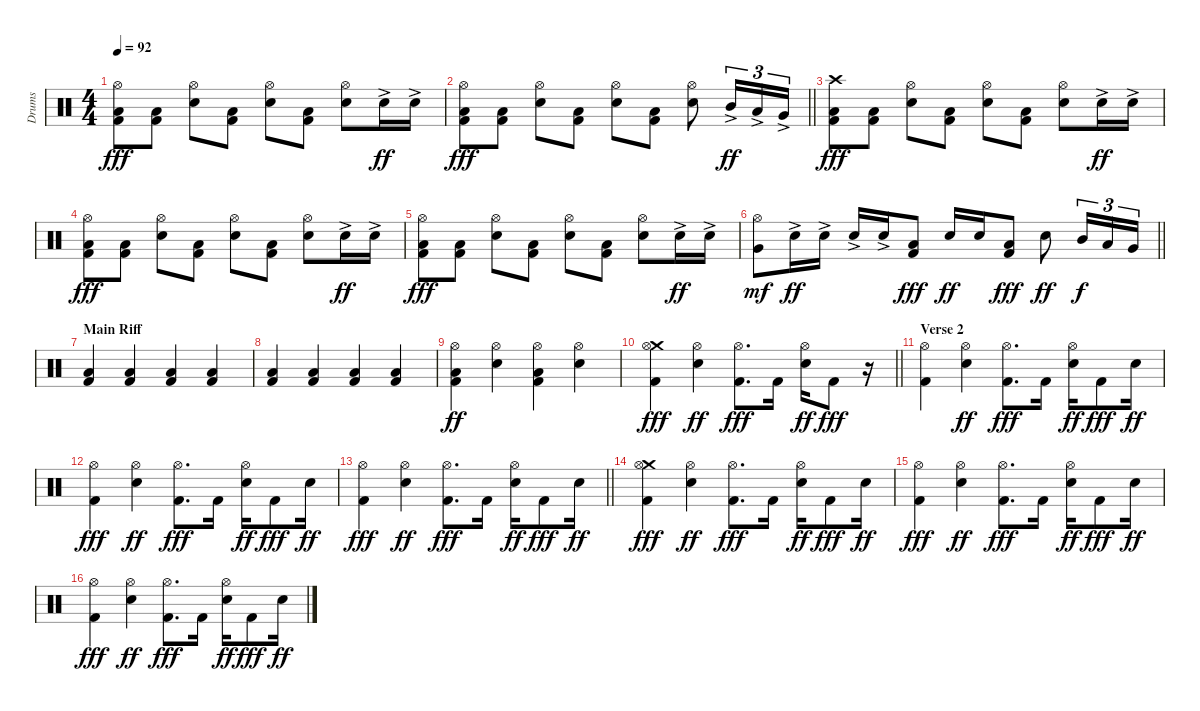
\track ("Drums" "Drums") {instrument percussion}
\staff {score}
\articulation defaults
\ts (4 4)
\tempo 92
\clef neutral
\ks c
("Hi-Hat (open)" "Low Floor Tom (hit)" "Kick (hit) 2").8{dy fff} ("Low Floor Tom (hit)" "Kick (hit) 2").8 ("Hi-Hat (open)" "Electric Snare (hit)").8 ("Low Floor Tom (hit)" "Kick (hit) 2").8 ("Hi-Hat (open)" "Electric Snare (hit)").8 ("Low Floor Tom (hit)" "Kick (hit) 2").8 ("Hi-Hat (open)" "Electric Snare (hit)").8 "Electric Snare (hit)"{ac}.16{dy ff} "Electric Snare (hit)"{ac}.16 |
\barLineRight lightlight
("Hi-Hat (open)" "Low Floor Tom (hit)" "Kick (hit) 2").8{dy fff} ("Low Floor Tom (hit)" "Kick (hit) 2").8 ("Hi-Hat (open)" "Electric Snare (hit)").8 ("Low Floor Tom (hit)" "Kick (hit) 2").8 ("Hi-Hat (open)" "Electric Snare (hit)").8 ("Low Floor Tom (hit)" "Kick (hit) 2").8 ("Hi-Hat (open)" "Electric Snare (hit)").8 "Mid Tom (hit)"{ac}.16{tu (3 2) dy ff} "Low Tom (hit)"{ac}.16{tu (3 2)} "Very Low Tom (hit)"{ac}.16{tu (3 2)} |
\section ("" "")
("Crash high (hit)" "Low Floor Tom (hit)" "Kick (hit) 2").8{dy fff} ("Low Floor Tom (hit)" "Kick (hit) 2").8 ("Hi-Hat (open)" "Electric Snare (hit)").8 ("Low Floor Tom (hit)" "Kick (hit) 2").8 ("Hi-Hat (open)" "Electric Snare (hit)").8 ("Low Floor Tom (hit)" "Kick (hit) 2").8 ("Hi-Hat (open)" "Electric Snare (hit)").8 "Electric Snare (hit)"{ac}.16{dy ff} "Electric Snare (hit)"{ac}.16 |
("Hi-Hat (open)" "Low Floor Tom (hit)" "Kick (hit) 2").8{dy fff} ("Low Floor Tom (hit)" "Kick (hit) 2").8 ("Hi-Hat (open)" "Electric Snare (hit)").8 ("Low Floor Tom (hit)" "Kick (hit) 2").8 ("Hi-Hat (open)" "Electric Snare (hit)").8 ("Low Floor Tom (hit)" "Kick (hit) 2").8 ("Hi-Hat (open)" "Electric Snare (hit)").8 "Electric Snare (hit)"{ac}.16{dy ff} "Electric Snare (hit)"{ac}.16 |
("Hi-Hat (open)" "Low Floor Tom (hit)" "Kick (hit) 2").8{dy fff} ("Low Floor Tom (hit)" "Kick (hit) 2").8 ("Hi-Hat (open)" "Electric Snare (hit)").8 ("Low Floor Tom (hit)" "Kick (hit) 2").8 ("Hi-Hat (open)" "Electric Snare (hit)").8 ("Low Floor Tom (hit)" "Kick (hit) 2").8 ("Hi-Hat (open)" "Electric Snare (hit)").8 "Electric Snare (hit)"{ac}.16{dy ff} "Electric Snare (hit)"{ac}.16 |
\barLineRight lightlight
("Hi-Hat (open)" "Very Low Tom (hit)").8{dy mf} "Electric Snare (hit)"{ac}.16{dy ff} "Electric Snare (hit)"{ac}.16 "Electric Snare (hit)"{ac}.16 "Electric Snare (hit)"{ac}.16 ("Low Floor Tom (hit)" "Kick (hit) 2").8{dy fff} "Electric Snare (hit)".16{dy ff} "Electric Snare (hit)".16 ("Low Floor Tom (hit)" "Kick (hit) 2").8{dy fff} "Electric Snare (hit)".8{dy ff} "Mid Tom (hit)".16{tu (3 2) dy f} "Low Tom (hit)".16{tu (3 2)} "Very Low Tom (hit)".16{tu (3 2)} |
\section ("" "Main Riff")
("Low Floor Tom (hit)" "Kick (hit) 2").4 ("Low Floor Tom (hit)" "Kick (hit) 2").4 ("Low Floor Tom (hit)" "Kick (hit) 2").4 ("Low Floor Tom (hit)" "Kick (hit) 2").4 |
("Low Floor Tom (hit)" "Kick (hit) 2").4 ("Low Floor Tom (hit)" "Kick (hit) 2").4 ("Low Floor Tom (hit)" "Kick (hit) 2").4 ("Low Floor Tom (hit)" "Kick (hit) 2").4 |
("Hi-Hat (open)" "Low Floor Tom (hit)" "Kick (hit) 2").4{dy ff} ("Hi-Hat (open)" "Electric Snare (hit)").4 ("Hi-Hat (open)" "Low Floor Tom (hit)" "Kick (hit) 2").4 ("Hi-Hat (open)" "Electric Snare (hit)").4 |
\barLineRight lightlight
("Crash medium (hit)" "Hi-Hat (open)" "Kick (hit) 2").4{dy fff} ("Hi-Hat (open)" "Electric Snare (hit)").4{dy ff} ("Hi-Hat (open)" "Kick (hit) 2").8{d dy fff} "Kick (hit) 2".16 ("Hi-Hat (open)" "Electric Snare (hit)").16{dy ff} "Kick (hit) 2".8{dy fff} r.16 |
\section ("" "Verse 2")
("Hi-Hat (open)" "Kick (hit) 2").4 ("Hi-Hat (open)" "Electric Snare (hit)").4{dy ff} ("Hi-Hat (open)" "Kick (hit) 2").8{d dy fff} "Kick (hit) 2".16 ("Hi-Hat (open)" "Electric Snare (hit)").16{dy ff} "Kick (hit) 2".8{dy fff} "Electric Snare (hit)".16{dy ff} |
("Hi-Hat (open)" "Kick (hit) 2").4{dy fff} ("Hi-Hat (open)" "Electric Snare (hit)").4{dy ff} ("Hi-Hat (open)" "Kick (hit) 2").8{d dy fff} "Kick (hit) 2".16 ("Hi-Hat (open)" "Electric Snare (hit)").16{dy ff} "Kick (hit) 2".8{dy fff} "Electric Snare (hit)".16{dy ff} |
\barLineRight lightlight
("Hi-Hat (open)" "Kick (hit) 2").4{dy fff} ("Hi-Hat (open)" "Electric Snare (hit)").4{dy ff} ("Hi-Hat (open)" "Kick (hit) 2").8{d dy fff} "Kick (hit) 2".16 ("Hi-Hat (open)" "Electric Snare (hit)").16{dy ff} "Kick (hit) 2".8{dy fff} "Electric Snare (hit)".16{dy ff} |
\section ("" "")
("Crash medium (hit)" "Hi-Hat (open)" "Kick (hit) 2").4{dy fff} ("Hi-Hat (open)" "Electric Snare (hit)").4{dy ff} ("Hi-Hat (open)" "Kick (hit) 2").8{d dy fff} "Kick (hit) 2".16 ("Hi-Hat (open)" "Electric Snare (hit)").16{dy ff} "Kick (hit) 2".8{dy fff} "Electric Snare (hit)".16{dy ff} |
("Hi-Hat (open)" "Kick (hit) 2").4{dy fff} ("Hi-Hat (open)" "Electric Snare (hit)").4{dy ff} ("Hi-Hat (open)" "Kick (hit) 2").8{d dy fff} "Kick (hit) 2".16 ("Hi-Hat (open)" "Electric Snare (hit)").16{dy ff} "Kick (hit) 2".8{dy fff} "Electric Snare (hit)".16{dy ff} |
("Hi-Hat (open)" "Kick (hit) 2").4{dy fff} ("Hi-Hat (open)" "Electric Snare (hit)").4{dy ff} ("Hi-Hat (open)" "Kick (hit) 2").8{d dy fff} "Kick (hit) 2".16 ("Hi-Hat (open)" "Electric Snare (hit)").16{dy ff} "Kick (hit) 2".8{dy fff} "Electric Snare (hit)".16{dy ff}
